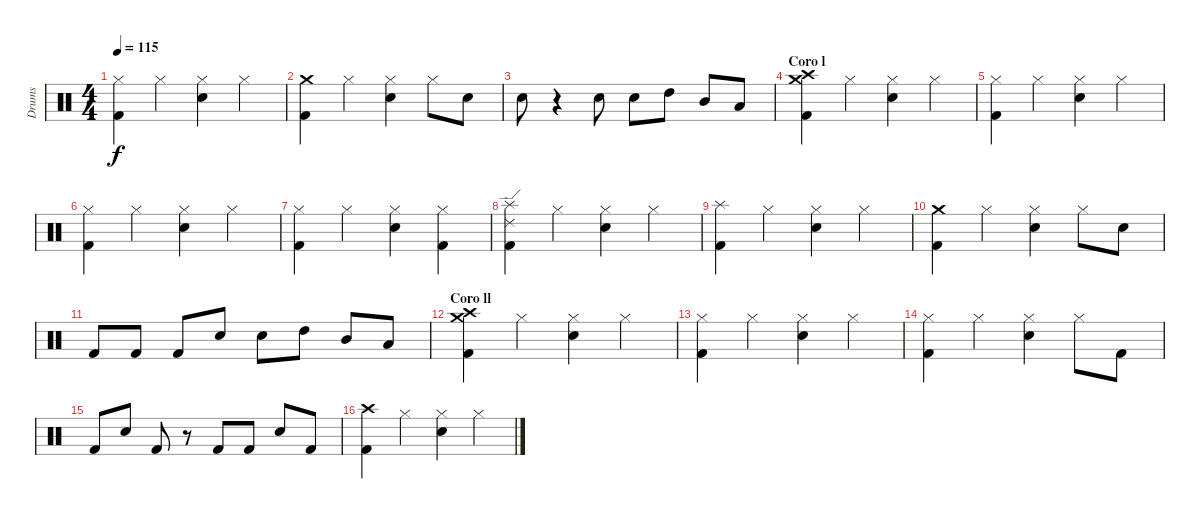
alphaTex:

\track ("Drums" "Drums") {instrument percussion}
\staff {score}
\articulation defaults
\ts (4 4)
\tempo 115
\clef neutral
\ks c
("Hi-Hat (closed)" "Kick (hit) 2").4{dy f} "Hi-Hat (closed)".4 ("Hi-Hat (closed)" "Snare (hit) 2").4 "Hi-Hat (closed)".4 |
("Crash medium (hit)" "Kick (hit) 2").4 "Hi-Hat (closed)".4 ("Hi-Hat (closed)" "Snare (hit) 2").4 "Hi-Hat (closed)".8 "Snare (hit) 2".8 |
"Snare (hit) 2".8 r.4 "Snare (hit) 2".8 "Snare (hit) 2".8 "High Tom (hit)".8 "Mid Tom (hit)".8 "Low Tom (hit)".8 |
\section ("" "Coro l")
("Crash high (hit)" "Crash medium (hit)" "Kick (hit) 2").4 "Hi-Hat (closed)".4 ("Hi-Hat (closed)" "Snare (hit) 2").4 "Hi-Hat (closed)".4 |
("Hi-Hat (closed)" "Kick (hit) 2").4 "Hi-Hat (closed)".4 ("Hi-Hat (closed)" "Snare (hit) 2").4 "Hi-Hat (closed)".4 |
("Hi-Hat (closed)" "Kick (hit) 2").4 "Hi-Hat (closed)".4 ("Hi-Hat (closed)" "Snare (hit) 2").4 "Hi-Hat (closed)".4 |
("Hi-Hat (closed)" "Kick (hit) 2").4 "Hi-Hat (closed)".4 ("Hi-Hat (closed)" "Snare (hit) 2").4 ("Hi-Hat (closed)" "Kick (hit) 2").4 |
("Ride (edge) 2" "Splash (hit)" "Kick (hit) 2").4 "Hi-Hat (closed)".4 ("Hi-Hat (closed)" "Snare (hit) 2").4 "Hi-Hat (closed)".4 |
("Splash (hit)" "Kick (hit) 2").4 "Hi-Hat (closed)".4 ("Hi-Hat (closed)" "Snare (hit) 2").4 "Hi-Hat (closed)".4 |
("Crash medium (hit)" "Kick (hit) 2").4 "Hi-Hat (closed)".4 ("Hi-Hat (closed)" "Snare (hit) 2").4 "Hi-Hat (closed)".8 "Snare (hit) 2".8 |
"Kick (hit) 2".8 "Kick (hit) 2".8 "Kick (hit) 2".8 "Snare (hit) 2".8 "Snare (hit) 2".8 "High Tom (hit)".8 "Mid Tom (hit)".8 "Low Tom (hit)".8 |
\section ("" "Coro ll")
("Crash high (hit)" "Crash medium (hit)" "Kick (hit) 2").4 "Hi-Hat (closed)".4 ("Hi-Hat (closed)" "Snare (hit) 2").4 "Hi-Hat (closed)".4 |
("Hi-Hat (closed)" "Kick (hit) 2").4 "Hi-Hat (closed)".4 ("Hi-Hat (closed)" "Snare (hit) 2").4 "Hi-Hat (closed)".4 |
("Hi-Hat (closed)" "Kick (hit) 2").4 "Hi-Hat (closed)".4 ("Hi-Hat (closed)" "Snare (hit) 2").4 "Hi-Hat (closed)".8 "Kick (hit) 2".8 |
"Kick (hit) 2".8 "Snare (hit) 2".8 "Kick (hit) 2".8 r.8 "Kick (hit) 2".8 "Kick (hit) 2".8 "Snare (hit) 2".8 "Kick (hit) 2".8 |
("Crash high (hit)" "Kick (hit) 2").4 "Hi-Hat (closed)".4 ("Hi-Hat (closed)" "Snare (hit) 2").4 "Hi-Hat (closed)".4
